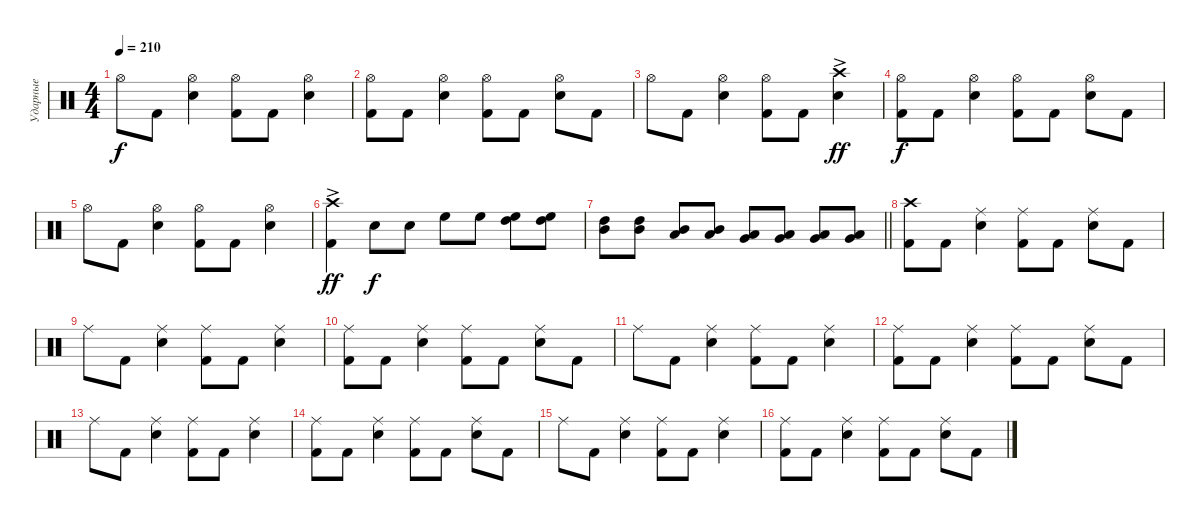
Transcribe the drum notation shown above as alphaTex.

\track ("Ударные" "Ударные") {instrument percussion}
\staff {score}
\articulation defaults
\ts (4 4)
\tempo 210
\clef neutral
\ks c "Hi-Hat (open)".8{dy f} "Kick (hit) 2".8
("Hi-Hat (open)" "Snare (hit) 2").4 ("Hi-Hat (open)" "Kick (hit) 2").8 "Kick (hit) 2".8 ("Hi-Hat (open)" "Snare (hit) 2").4 |
("Hi-Hat (open)" "Kick (hit) 2").8 "Kick (hit) 2".8 ("Hi-Hat (open)" "Snare (hit) 2").4 ("Hi-Hat (open)" "Kick (hit) 2").8 "Kick (hit) 2".8 ("Hi-Hat (open)" "Snare (hit) 2").8 "Kick (hit) 2".8 |
"Hi-Hat (open)".8 "Kick (hit) 2".8 ("Hi-Hat (open)" "Snare (hit) 2").4 ("Hi-Hat (open)" "Kick (hit) 2").8 "Kick (hit) 2".8 ("Crash high (hit)"{ac} "Snare (hit) 2").4{dy ff} |
("Hi-Hat (open)" "Kick (hit) 2").8{dy f} "Kick (hit) 2".8 ("Hi-Hat (open)" "Snare (hit) 2").4 ("Hi-Hat (open)" "Kick (hit) 2").8 "Kick (hit) 2".8 ("Hi-Hat (open)" "Snare (hit) 2").8 "Kick (hit) 2".8 |
"Hi-Hat (open)".8 "Kick (hit) 2".8 ("Hi-Hat (open)" "Snare (hit) 2").4 ("Hi-Hat (open)" "Kick (hit) 2").8 "Kick (hit) 2".8 ("Hi-Hat (open)" "Snare (hit) 2").4 |
("Crash high (hit)"{ac} "Kick (hit) 2").4{dy ff} "Snare (hit) 2".8{dy f} "Snare (hit) 2".8 "High Floor Tom (hit)".8 "High Floor Tom (hit)".8 ("High Floor Tom (hit)" "High Tom (hit)").8 ("High Floor Tom (hit)" "High Tom (hit)").8 |
\barLineRight lightlight
("High Tom (hit)" "Mid Tom (hit)").8 ("High Tom (hit)" "Mid Tom (hit)").8 ("Mid Tom (hit)" "Low Tom (hit)").8 ("Mid Tom (hit)" "Low Tom (hit)").8 ("Low Tom (hit)" "Very Low Tom (hit)").8 ("Low Tom (hit)" "Very Low Tom (hit)").8 ("Very Low Tom (hit)" "Low Floor Tom (hit)").8 ("Very Low Tom (hit)" "Low Floor Tom (hit)").8 |
\section ("" "")
("Crash high (hit)" "Kick (hit) 2").8 "Kick (hit) 2".8 ("Ride (middle)" "Snare (hit) 2").4 ("Ride (middle)" "Kick (hit) 2").8 "Kick (hit) 2".8 ("Ride (middle)" "Snare (hit) 2").8 "Kick (hit) 2".8 |
"Ride (middle)".8 "Kick (hit) 2".8 ("Ride (middle)" "Snare (hit) 2").4 ("Ride (middle)" "Kick (hit) 2").8 "Kick (hit) 2".8 ("Ride (middle)" "Snare (hit) 2").4 |
("Ride (middle)" "Kick (hit) 2").8 "Kick (hit) 2".8 ("Ride (middle)" "Snare (hit) 2").4 ("Ride (middle)" "Kick (hit) 2").8 "Kick (hit) 2".8 ("Ride (middle)" "Snare (hit) 2").8 "Kick (hit) 2".8 |
"Ride (middle)".8 "Kick (hit) 2".8 ("Ride (middle)" "Snare (hit) 2").4 ("Ride (middle)" "Kick (hit) 2").8 "Kick (hit) 2".8 ("Ride (middle)" "Snare (hit) 2").4 |
("Ride (middle)" "Kick (hit) 2").8 "Kick (hit) 2".8 ("Ride (middle)" "Snare (hit) 2").4 ("Ride (middle)" "Kick (hit) 2").8 "Kick (hit) 2".8 ("Ride (middle)" "Snare (hit) 2").8 "Kick (hit) 2".8 |
"Ride (middle)".8 "Kick (hit) 2".8 ("Ride (middle)" "Snare (hit) 2").4 ("Ride (middle)" "Kick (hit) 2").8 "Kick (hit) 2".8 ("Ride (middle)" "Snare (hit) 2").4 |
("Ride (middle)" "Kick (hit) 2").8 "Kick (hit) 2".8 ("Ride (middle)" "Snare (hit) 2").4 ("Ride (middle)" "Kick (hit) 2").8 "Kick (hit) 2".8 ("Ride (middle)" "Snare (hit) 2").8 "Kick (hit) 2".8 |
"Ride (middle)".8 "Kick (hit) 2".8 ("Ride (middle)" "Snare (hit) 2").4 ("Ride (middle)" "Kick (hit) 2").8 "Kick (hit) 2".8 ("Ride (middle)" "Snare (hit) 2").4 |
("Ride (middle)" "Kick (hit) 2").8 "Kick (hit) 2".8 ("Ride (middle)" "Snare (hit) 2").4 ("Ride (middle)" "Kick (hit) 2").8 "Kick (hit) 2".8 ("Ride (middle)" "Snare (hit) 2").8 "Kick (hit) 2".8
